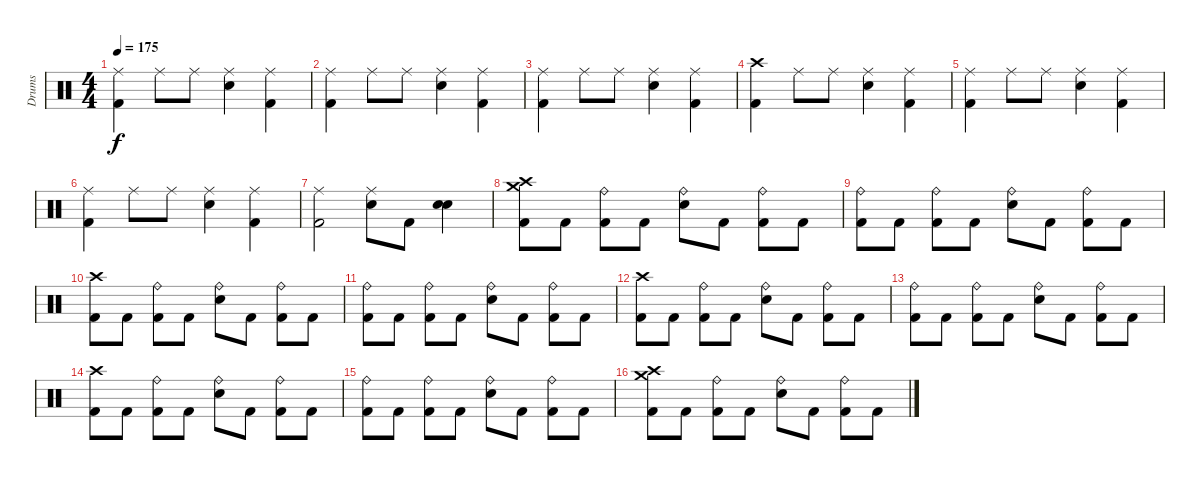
\track ("Drums" "Drums") {instrument percussion}
\staff {score}
\articulation defaults
\ts (4 4)
\tempo 175
\clef neutral
\ks c
("Ride (middle)" "Kick (hit) 2").4{dy f} "Ride (middle)".8 "Ride (middle)".8 ("Ride (middle)" "Snare (hit) 2").4 ("Ride (middle)" "Kick (hit) 2").4 |
("Ride (middle)" "Kick (hit) 2").4 "Ride (middle)".8 "Ride (middle)".8 ("Ride (middle)" "Snare (hit) 2").4 ("Ride (middle)" "Kick (hit) 2").4 |
("Ride (middle)" "Kick (hit) 2").4 "Ride (middle)".8 "Ride (middle)".8 ("Ride (middle)" "Snare (hit) 2").4 ("Ride (middle)" "Kick (hit) 2").4 |
("Crash high (hit)" "Kick (hit) 2").4 "Ride (middle)".8 "Ride (middle)".8 ("Ride (middle)" "Snare (hit) 2").4 ("Ride (middle)" "Kick (hit) 2").4 |
("Ride (middle)" "Kick (hit) 2").4 "Ride (middle)".8 "Ride (middle)".8 ("Ride (middle)" "Snare (hit) 2").4 ("Ride (middle)" "Kick (hit) 2").4 |
("Ride (middle)" "Kick (hit) 2").4 "Ride (middle)".8 "Ride (middle)".8 ("Ride (middle)" "Snare (hit) 2").4 ("Ride (middle)" "Kick (hit) 2").4 |
("Ride (middle)" "Kick (hit) 2").2 ("Ride (middle)" "Snare (hit) 2").8 "Kick (hit) 2".8 ("Snare (hit)" "Snare (hit) 2").4 |
("Crash medium (hit)" "Crash high (hit)" "Kick (hit) 2").8 "Kick (hit) 2".8 ("Ride (bell)" "Kick (hit) 2").8 "Kick (hit) 2".8 ("Ride (bell)" "Snare (hit) 2").8 "Kick (hit) 2".8 ("Ride (bell)" "Kick (hit) 2").8 "Kick (hit) 2".8 |
("Ride (bell)" "Kick (hit) 2").8 "Kick (hit) 2".8 ("Ride (bell)" "Kick (hit) 2").8 "Kick (hit) 2".8 ("Ride (bell)" "Snare (hit) 2").8 "Kick (hit) 2".8 ("Ride (bell)" "Kick (hit) 2").8 "Kick (hit) 2".8 |
("Crash high (hit)" "Kick (hit) 2").8 "Kick (hit) 2".8 ("Ride (bell)" "Kick (hit) 2").8 "Kick (hit) 2".8 ("Ride (bell)" "Snare (hit) 2").8 "Kick (hit) 2".8 ("Ride (bell)" "Kick (hit) 2").8 "Kick (hit) 2".8 |
("Ride (bell)" "Kick (hit) 2").8 "Kick (hit) 2".8 ("Ride (bell)" "Kick (hit) 2").8 "Kick (hit) 2".8 ("Ride (bell)" "Snare (hit) 2").8 "Kick (hit) 2".8 ("Ride (bell)" "Kick (hit) 2").8 "Kick (hit) 2".8 |
("Crash high (hit)" "Kick (hit) 2").8 "Kick (hit) 2".8 ("Ride (bell)" "Kick (hit) 2").8 "Kick (hit) 2".8 ("Ride (bell)" "Snare (hit) 2").8 "Kick (hit) 2".8 ("Ride (bell)" "Kick (hit) 2").8 "Kick (hit) 2".8 |
("Ride (bell)" "Kick (hit) 2").8 "Kick (hit) 2".8 ("Ride (bell)" "Kick (hit) 2").8 "Kick (hit) 2".8 ("Ride (bell)" "Snare (hit) 2").8 "Kick (hit) 2".8 ("Ride (bell)" "Kick (hit) 2").8 "Kick (hit) 2".8 |
("Crash high (hit)" "Kick (hit) 2").8 "Kick (hit) 2".8 ("Ride (bell)" "Kick (hit) 2").8 "Kick (hit) 2".8 ("Ride (bell)" "Snare (hit) 2").8 "Kick (hit) 2".8 ("Ride (bell)" "Kick (hit) 2").8 "Kick (hit) 2".8 |
("Ride (bell)" "Kick (hit) 2").8 "Kick (hit) 2".8 ("Ride (bell)" "Kick (hit) 2").8 "Kick (hit) 2".8 ("Ride (bell)" "Snare (hit) 2").8 "Kick (hit) 2".8 ("Ride (bell)" "Kick (hit) 2").8 "Kick (hit) 2".8 |
("Crash medium (hit)" "Crash high (hit)" "Kick (hit) 2").8 "Kick (hit) 2".8 ("Ride (bell)" "Kick (hit) 2").8 "Kick (hit) 2".8 ("Ride (bell)" "Snare (hit) 2").8 "Kick (hit) 2".8 ("Ride (bell)" "Kick (hit) 2").8 "Kick (hit) 2".8
